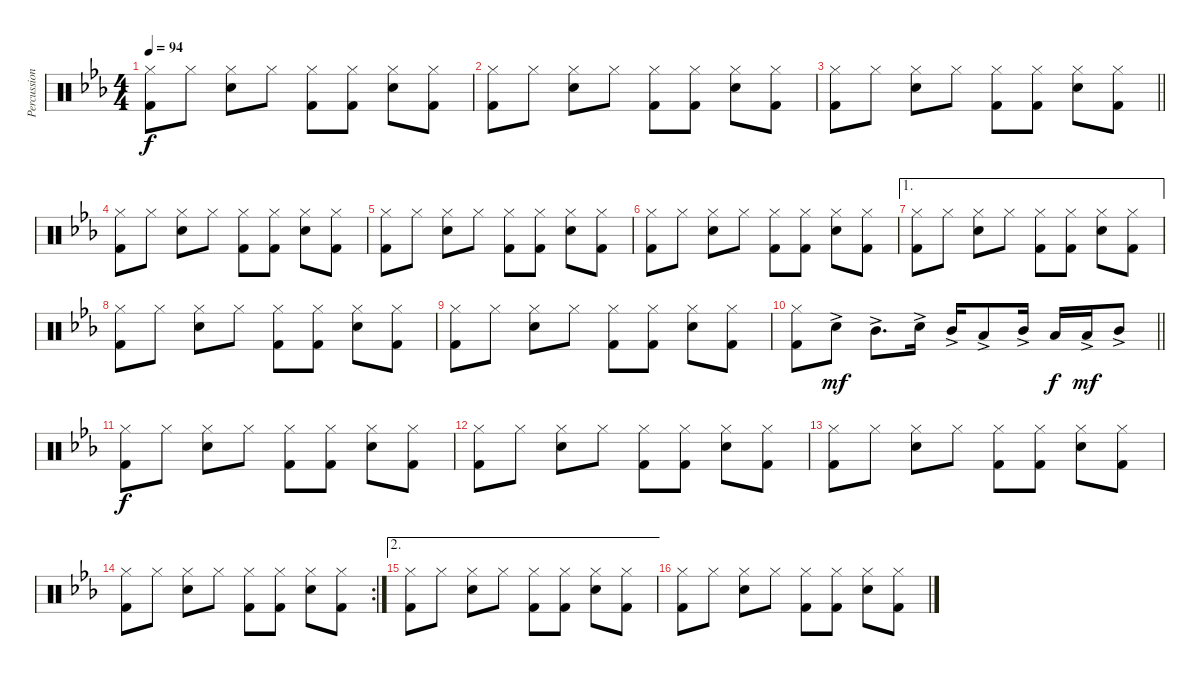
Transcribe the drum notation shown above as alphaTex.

\track ("Percussion" "Percussion") {instrument percussion}
\staff {score}
\articulation defaults
\ts (4 4)
\tempo 94
\clef neutral
\ks eb
("Hi-Hat (closed)" "Kick (hit) 2").8{dy f} "Hi-Hat (closed)".8 ("Hi-Hat (closed)" "Snare (hit) 2").8 "Hi-Hat (closed)".8 ("Hi-Hat (closed)" "Kick (hit) 2").8 ("Hi-Hat (closed)" "Kick (hit) 2").8 ("Hi-Hat (closed)" "Snare (hit) 2").8 ("Hi-Hat (closed)" "Kick (hit) 2").8 |
("Hi-Hat (closed)" "Kick (hit) 2").8 "Hi-Hat (closed)".8 ("Hi-Hat (closed)" "Snare (hit) 2").8 "Hi-Hat (closed)".8 ("Hi-Hat (closed)" "Kick (hit) 2").8 ("Hi-Hat (closed)" "Kick (hit) 2").8 ("Hi-Hat (closed)" "Snare (hit) 2").8 ("Hi-Hat (closed)" "Kick (hit) 2").8 |
\barLineRight lightlight
("Hi-Hat (closed)" "Kick (hit) 2").8 "Hi-Hat (closed)".8 ("Hi-Hat (closed)" "Snare (hit) 2").8 "Hi-Hat (closed)".8 ("Hi-Hat (closed)" "Kick (hit) 2").8 ("Hi-Hat (closed)" "Kick (hit) 2").8 ("Hi-Hat (closed)" "Snare (hit) 2").8 ("Hi-Hat (closed)" "Kick (hit) 2").8 |
("Hi-Hat (closed)" "Kick (hit) 2").8 "Hi-Hat (closed)".8 ("Hi-Hat (closed)" "Snare (hit) 2").8 "Hi-Hat (closed)".8 ("Hi-Hat (closed)" "Kick (hit) 2").8 ("Hi-Hat (closed)" "Kick (hit) 2").8 ("Hi-Hat (closed)" "Snare (hit) 2").8 ("Hi-Hat (closed)" "Kick (hit) 2").8 |
("Hi-Hat (closed)" "Kick (hit) 2").8 "Hi-Hat (closed)".8 ("Hi-Hat (closed)" "Snare (hit) 2").8 "Hi-Hat (closed)".8 ("Hi-Hat (closed)" "Kick (hit) 2").8 ("Hi-Hat (closed)" "Kick (hit) 2").8 ("Hi-Hat (closed)" "Snare (hit) 2").8 ("Hi-Hat (closed)" "Kick (hit) 2").8 |
("Hi-Hat (closed)" "Kick (hit) 2").8 "Hi-Hat (closed)".8 ("Hi-Hat (closed)" "Snare (hit) 2").8 "Hi-Hat (closed)".8 ("Hi-Hat (closed)" "Kick (hit) 2").8 ("Hi-Hat (closed)" "Kick (hit) 2").8 ("Hi-Hat (closed)" "Snare (hit) 2").8 ("Hi-Hat (closed)" "Kick (hit) 2").8 |
\ae 1
("Hi-Hat (closed)" "Kick (hit) 2").8 "Hi-Hat (closed)".8 ("Hi-Hat (closed)" "Snare (hit) 2").8 "Hi-Hat (closed)".8 ("Hi-Hat (closed)" "Kick (hit) 2").8 ("Hi-Hat (closed)" "Kick (hit) 2").8 ("Hi-Hat (closed)" "Snare (hit) 2").8 ("Hi-Hat (closed)" "Kick (hit) 2").8 |
("Hi-Hat (closed)" "Kick (hit) 2").8 "Hi-Hat (closed)".8 ("Hi-Hat (closed)" "Snare (hit) 2").8 "Hi-Hat (closed)".8 ("Hi-Hat (closed)" "Kick (hit) 2").8 ("Hi-Hat (closed)" "Kick (hit) 2").8 ("Hi-Hat (closed)" "Snare (hit) 2").8 ("Hi-Hat (closed)" "Kick (hit) 2").8 |
("Hi-Hat (closed)" "Kick (hit) 2").8 "Hi-Hat (closed)".8 ("Hi-Hat (closed)" "Snare (hit) 2").8 "Hi-Hat (closed)".8 ("Hi-Hat (closed)" "Kick (hit) 2").8 ("Hi-Hat (closed)" "Kick (hit) 2").8 ("Hi-Hat (closed)" "Snare (hit) 2").8 ("Hi-Hat (closed)" "Kick (hit) 2").8 |
\barLineRight lightlight
("Hi-Hat (closed)" "Kick (hit) 2").8 "Snare (hit) 2"{ac}.8{dy mf} "Mid Tom (hit)"{ac}.8{d} "Snare (hit) 2"{ac}.16 "Mid Tom (hit)"{ac}.16 "Low Tom (hit)"{ac}.8 "Mid Tom (hit)"{ac}.16 "Low Tom (hit)".16{dy f} "Low Tom (hit)"{ac}.16{dy mf} "Mid Tom (hit)"{ac}.8 |
("Hi-Hat (closed)" "Kick (hit) 2").8{dy f} "Hi-Hat (closed)".8 ("Hi-Hat (closed)" "Snare (hit) 2").8 "Hi-Hat (closed)".8 ("Hi-Hat (closed)" "Kick (hit) 2").8 ("Hi-Hat (closed)" "Kick (hit) 2").8 ("Hi-Hat (closed)" "Snare (hit) 2").8 ("Hi-Hat (closed)" "Kick (hit) 2").8 |
("Hi-Hat (closed)" "Kick (hit) 2").8 "Hi-Hat (closed)".8 ("Hi-Hat (closed)" "Snare (hit) 2").8 "Hi-Hat (closed)".8 ("Hi-Hat (closed)" "Kick (hit) 2").8 ("Hi-Hat (closed)" "Kick (hit) 2").8 ("Hi-Hat (closed)" "Snare (hit) 2").8 ("Hi-Hat (closed)" "Kick (hit) 2").8 |
("Hi-Hat (closed)" "Kick (hit) 2").8 "Hi-Hat (closed)".8 ("Hi-Hat (closed)" "Snare (hit) 2").8 "Hi-Hat (closed)".8 ("Hi-Hat (closed)" "Kick (hit) 2").8 ("Hi-Hat (closed)" "Kick (hit) 2").8 ("Hi-Hat (closed)" "Snare (hit) 2").8 ("Hi-Hat (closed)" "Kick (hit) 2").8 |
\rc 2
("Hi-Hat (closed)" "Kick (hit) 2").8 "Hi-Hat (closed)".8 ("Hi-Hat (closed)" "Snare (hit) 2").8 "Hi-Hat (closed)".8 ("Hi-Hat (closed)" "Kick (hit) 2").8 ("Hi-Hat (closed)" "Kick (hit) 2").8 ("Hi-Hat (closed)" "Snare (hit) 2").8 ("Hi-Hat (closed)" "Kick (hit) 2").8 |
\ae 2
("Hi-Hat (closed)" "Kick (hit) 2").8 "Hi-Hat (closed)".8 ("Hi-Hat (closed)" "Snare (hit) 2").8 "Hi-Hat (closed)".8 ("Hi-Hat (closed)" "Kick (hit) 2").8 ("Hi-Hat (closed)" "Kick (hit) 2").8 ("Hi-Hat (closed)" "Snare (hit) 2").8 ("Hi-Hat (closed)" "Kick (hit) 2").8 |
("Hi-Hat (closed)" "Kick (hit) 2").8 "Hi-Hat (closed)".8 ("Hi-Hat (closed)" "Snare (hit) 2").8 "Hi-Hat (closed)".8 ("Hi-Hat (closed)" "Kick (hit) 2").8 ("Hi-Hat (closed)" "Kick (hit) 2").8 ("Hi-Hat (closed)" "Snare (hit) 2").8 ("Hi-Hat (closed)" "Kick (hit) 2").8
